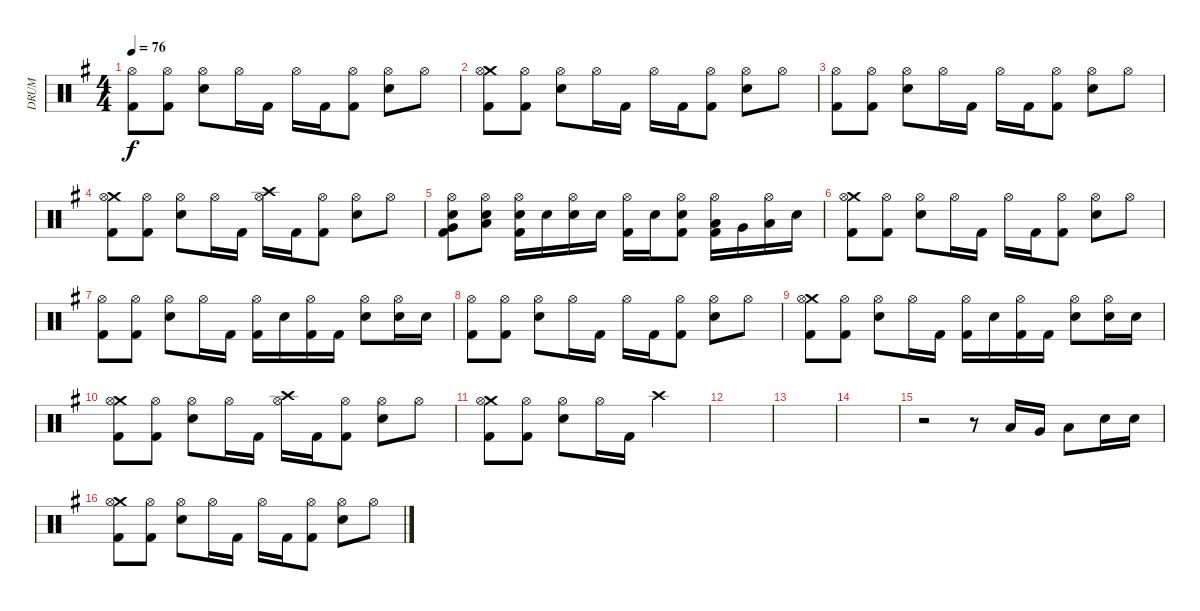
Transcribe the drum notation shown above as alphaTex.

\track ("DRUM" "DRUM") {instrument percussion}
\staff {score}
\articulation defaults
\ts (4 4)
\tempo 76
\clef neutral
\ks eminor
("Hi-Hat (open)" "Kick (hit) 2").8{dy f} ("Hi-Hat (open)" "Kick (hit) 2").8 ("Hi-Hat (open)" "Electric Snare (hit)").8 "Hi-Hat (open)".16 "Kick (hit) 2".16 "Hi-Hat (open)".16 "Kick (hit) 2".16 ("Hi-Hat (open)" "Kick (hit) 2").8 ("Hi-Hat (open)" "Electric Snare (hit)").8 "Hi-Hat (open)".8 |
("Crash medium (hit)" "Hi-Hat (open)" "Kick (hit) 2").8 ("Hi-Hat (open)" "Kick (hit) 2").8 ("Hi-Hat (open)" "Electric Snare (hit)").8 "Hi-Hat (open)".16 "Kick (hit) 2".16 "Hi-Hat (open)".16 "Kick (hit) 2".16 ("Hi-Hat (open)" "Kick (hit) 2").8 ("Hi-Hat (open)" "Electric Snare (hit)").8 "Hi-Hat (open)".8 |
("Hi-Hat (open)" "Kick (hit) 2").8 ("Hi-Hat (open)" "Kick (hit) 2").8 ("Hi-Hat (open)" "Electric Snare (hit)").8 "Hi-Hat (open)".16 "Kick (hit) 2".16 "Hi-Hat (open)".16 "Kick (hit) 2".16 ("Hi-Hat (open)" "Kick (hit) 2").8 ("Hi-Hat (open)" "Electric Snare (hit)").8 "Hi-Hat (open)".8 |
("Crash medium (hit)" "Hi-Hat (open)" "Kick (hit) 2").8 ("Hi-Hat (open)" "Kick (hit) 2").8 ("Hi-Hat (open)" "Electric Snare (hit)").8 "Hi-Hat (open)".16 "Kick (hit) 2".16 ("Crash high (hit)" "Hi-Hat (open)").16 "Kick (hit) 2".16 ("Hi-Hat (open)" "Kick (hit) 2").8 ("Hi-Hat (open)" "Electric Snare (hit)").8 "Hi-Hat (open)".8 |
("Hi-Hat (open)" "Electric Snare (hit)" "Very Low Tom (hit)" "Kick (hit) 2").8 ("Hi-Hat (open)" "Electric Snare (hit)" "Low Floor Tom (hit)").8 ("Hi-Hat (open)" "Electric Snare (hit)" "Kick (hit) 2").16 "Electric Snare (hit)".16 ("Hi-Hat (open)" "Electric Snare (hit)").16 "Electric Snare (hit)".16 ("Hi-Hat (open)" "Kick (hit) 2").16 "Electric Snare (hit)".16 ("Hi-Hat (open)" "Electric Snare (hit)" "Kick (hit) 2").8 ("Hi-Hat (open)" "Low Tom (hit)" "Kick (hit) 2").16 "Very Low Tom (hit)".16 ("Hi-Hat (open)" "Low Floor Tom (hit)").16 "Electric Snare (hit)".16 |
("Crash medium (hit)" "Hi-Hat (open)" "Kick (hit) 2").8 ("Hi-Hat (open)" "Kick (hit) 2").8 ("Hi-Hat (open)" "Electric Snare (hit)").8 "Hi-Hat (open)".16 "Kick (hit) 2".16 "Hi-Hat (open)".16 "Kick (hit) 2".16 ("Hi-Hat (open)" "Kick (hit) 2").8 ("Hi-Hat (open)" "Electric Snare (hit)").8 "Hi-Hat (open)".8 |
("Hi-Hat (open)" "Kick (hit) 2").8 ("Hi-Hat (open)" "Kick (hit) 2").8 ("Hi-Hat (open)" "Electric Snare (hit)").8 "Hi-Hat (open)".16 "Kick (hit) 2".16 ("Hi-Hat (open)" "Kick (hit) 2").16 "Electric Snare (hit)".16 ("Hi-Hat (open)" "Kick (hit) 2").16 "Kick (hit) 2".16 ("Hi-Hat (open)" "Electric Snare (hit)").8 ("Hi-Hat (open)" "Electric Snare (hit)").16 "Electric Snare (hit)".16 |
("Hi-Hat (open)" "Kick (hit) 2").8 ("Hi-Hat (open)" "Kick (hit) 2").8 ("Hi-Hat (open)" "Electric Snare (hit)").8 "Hi-Hat (open)".16 "Kick (hit) 2".16 "Hi-Hat (open)".16 "Kick (hit) 2".16 ("Hi-Hat (open)" "Kick (hit) 2").8 ("Hi-Hat (open)" "Electric Snare (hit)").8 "Hi-Hat (open)".8 |
("Crash medium (hit)" "Hi-Hat (open)" "Kick (hit) 2").8 ("Hi-Hat (open)" "Kick (hit) 2").8 ("Hi-Hat (open)" "Electric Snare (hit)").8 "Hi-Hat (open)".16 "Kick (hit) 2".16 ("Hi-Hat (open)" "Kick (hit) 2").16 "Electric Snare (hit)".16 ("Hi-Hat (open)" "Kick (hit) 2").16 "Kick (hit) 2".16 ("Hi-Hat (open)" "Electric Snare (hit)").8 ("Hi-Hat (open)" "Electric Snare (hit)").16 "Electric Snare (hit)".16 |
("Crash medium (hit)" "Hi-Hat (open)" "Kick (hit) 2").8 ("Hi-Hat (open)" "Kick (hit) 2").8 ("Hi-Hat (open)" "Electric Snare (hit)").8 "Hi-Hat (open)".16 "Kick (hit) 2".16 ("Crash high (hit)" "Hi-Hat (open)").16 "Kick (hit) 2".16 ("Hi-Hat (open)" "Kick (hit) 2").8 ("Hi-Hat (open)" "Electric Snare (hit)").8 "Hi-Hat (open)".8 |
("Crash medium (hit)" "Hi-Hat (open)" "Kick (hit) 2").8 ("Hi-Hat (open)" "Kick (hit) 2").8 ("Hi-Hat (open)" "Electric Snare (hit)").8 "Hi-Hat (open)".16 "Kick (hit) 2".16 "Crash high (hit)".2 |
|
|
|
r.2 r.8 "Low Tom (hit)".16 "Very Low Tom (hit)".16 "Low Floor Tom (hit)".8 "Electric Snare (hit)".16 "Electric Snare (hit)".16 |
("Crash medium (hit)" "Hi-Hat (open)" "Kick (hit) 2").8 ("Hi-Hat (open)" "Kick (hit) 2").8 ("Hi-Hat (open)" "Electric Snare (hit)").8 "Hi-Hat (open)".16 "Kick (hit) 2".16 "Hi-Hat (open)".16 "Kick (hit) 2".16 ("Hi-Hat (open)" "Kick (hit) 2").8 ("Hi-Hat (open)" "Electric Snare (hit)").8 "Hi-Hat (open)".8
